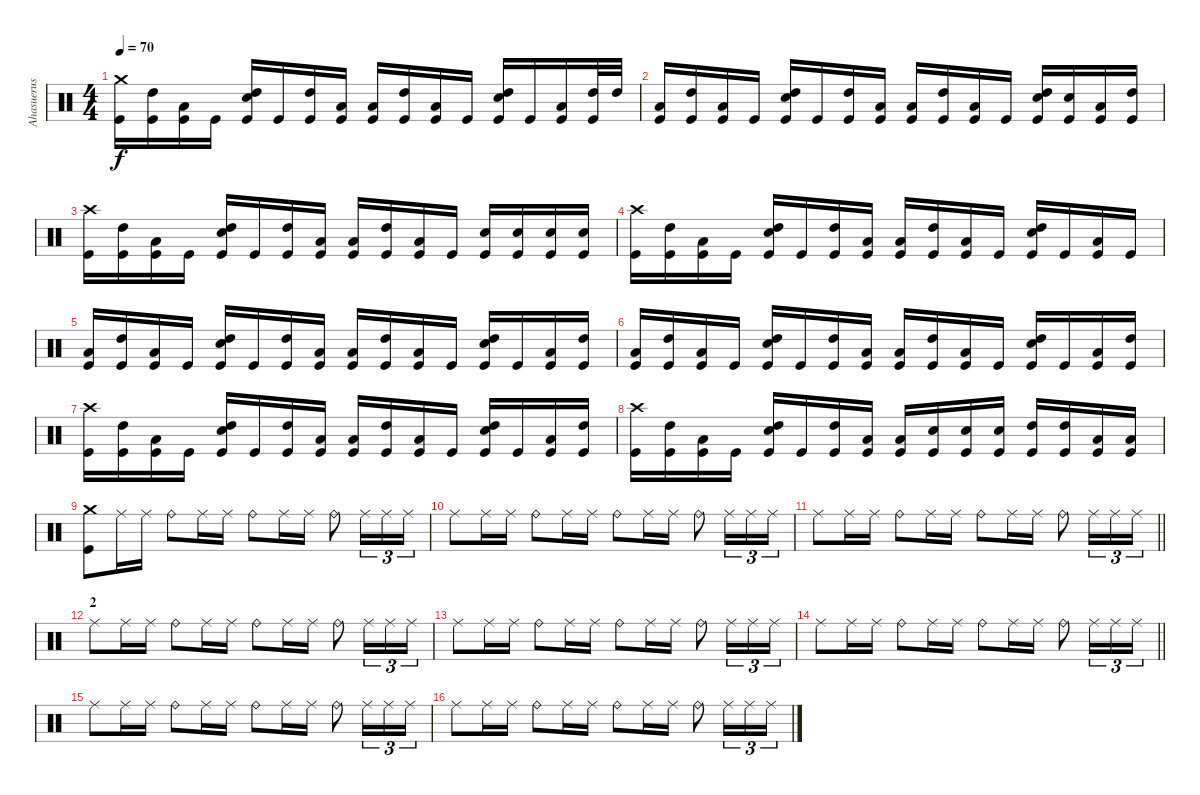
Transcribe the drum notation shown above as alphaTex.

\track ("Ahasuerus" "Ahasuerus") {instrument percussion}
\staff {score}
\articulation defaults
\ts (4 4)
\tempo 70
\clef neutral
\ks c
("Crash medium (hit)" "Kick (hit)").16{dy f} ("High Tom (hit)" "Kick (hit)").16 ("Low Tom (hit)" "Kick (hit)").16 "Kick (hit)".16 ("High Tom (hit)" "Electric Snare (hit)" "Kick (hit)").16 "Kick (hit)".16 ("High Tom (hit)" "Kick (hit)").16 ("Low Tom (hit)" "Kick (hit)").16 ("Low Tom (hit)" "Kick (hit)").16 ("High Tom (hit)" "Kick (hit)").16 ("Low Tom (hit)" "Kick (hit)").16 "Kick (hit)".16 ("High Tom (hit)" "Electric Snare (hit)" "Kick (hit)").16 "Kick (hit)".16 ("Low Tom (hit)" "Kick (hit)").16 ("High Tom (hit)" "Kick (hit)").32 "High Tom (hit)".32 |
("Low Tom (hit)" "Kick (hit)").16 ("High Tom (hit)" "Kick (hit)").16 ("Low Tom (hit)" "Kick (hit)").16 "Kick (hit)".16 ("High Tom (hit)" "Electric Snare (hit)" "Kick (hit)").16 "Kick (hit)".16 ("High Tom (hit)" "Kick (hit)").16 ("Low Tom (hit)" "Kick (hit)").16 ("Low Tom (hit)" "Kick (hit)").16 ("High Tom (hit)" "Kick (hit)").16 ("Low Tom (hit)" "Kick (hit)").16 "Kick (hit)".16 ("High Tom (hit)" "Electric Snare (hit)" "Kick (hit)").16 ("Electric Snare (hit)" "Kick (hit)").16 ("Low Tom (hit)" "Kick (hit)").16 ("High Tom (hit)" "Kick (hit)").16 |
("Crash high (hit)" "Kick (hit)").16 ("High Tom (hit)" "Kick (hit)").16 ("Low Tom (hit)" "Kick (hit)").16 "Kick (hit)".16 ("High Tom (hit)" "Electric Snare (hit)" "Kick (hit)").16 "Kick (hit)".16 ("High Tom (hit)" "Kick (hit)").16 ("Low Tom (hit)" "Kick (hit)").16 ("Low Tom (hit)" "Kick (hit)").16 ("High Tom (hit)" "Kick (hit)").16 ("Low Tom (hit)" "Kick (hit)").16 "Kick (hit)".16 ("Electric Snare (hit)" "Kick (hit)").16 ("Electric Snare (hit)" "Kick (hit)").16 ("Electric Snare (hit)" "Kick (hit)").16 ("Electric Snare (hit)" "Kick (hit)").16 |
("Crash high (hit)" "Kick (hit)").16 ("High Tom (hit)" "Kick (hit)").16 ("Low Tom (hit)" "Kick (hit)").16 "Kick (hit)".16 ("High Tom (hit)" "Electric Snare (hit)" "Kick (hit)").16 "Kick (hit)".16 ("High Tom (hit)" "Kick (hit)").16 ("Low Tom (hit)" "Kick (hit)").16 ("Low Tom (hit)" "Kick (hit)").16 ("High Tom (hit)" "Kick (hit)").16 ("Low Tom (hit)" "Kick (hit)").16 "Kick (hit)".16 ("High Tom (hit)" "Electric Snare (hit)" "Kick (hit)").16 "Kick (hit)".16 ("Low Tom (hit)" "Kick (hit)").16 "Kick (hit)".16 |
("Low Tom (hit)" "Kick (hit)").16 ("High Tom (hit)" "Kick (hit)").16 ("Low Tom (hit)" "Kick (hit)").16 "Kick (hit)".16 ("High Tom (hit)" "Electric Snare (hit)" "Kick (hit)").16 "Kick (hit)".16 ("High Tom (hit)" "Kick (hit)").16 ("Low Tom (hit)" "Kick (hit)").16 ("Low Tom (hit)" "Kick (hit)").16 ("High Tom (hit)" "Kick (hit)").16 ("Low Tom (hit)" "Kick (hit)").16 "Kick (hit)".16 ("High Tom (hit)" "Electric Snare (hit)" "Kick (hit)").16 "Kick (hit)".16 ("Low Tom (hit)" "Kick (hit)").16 ("High Tom (hit)" "Kick (hit)").16 |
("Low Tom (hit)" "Kick (hit)").16 ("High Tom (hit)" "Kick (hit)").16 ("Low Tom (hit)" "Kick (hit)").16 "Kick (hit)".16 ("High Tom (hit)" "Electric Snare (hit)" "Kick (hit)").16 "Kick (hit)".16 ("High Tom (hit)" "Kick (hit)").16 ("Low Tom (hit)" "Kick (hit)").16 ("Low Tom (hit)" "Kick (hit)").16 ("High Tom (hit)" "Kick (hit)").16 ("Low Tom (hit)" "Kick (hit)").16 "Kick (hit)".16 ("High Tom (hit)" "Electric Snare (hit)" "Kick (hit)").16 "Kick (hit)".16 ("Low Tom (hit)" "Kick (hit)").16 ("High Tom (hit)" "Kick (hit)").16 |
("Crash high (hit)" "Kick (hit)").16 ("High Tom (hit)" "Kick (hit)").16 ("Low Tom (hit)" "Kick (hit)").16 "Kick (hit)".16 ("High Tom (hit)" "Electric Snare (hit)" "Kick (hit)").16 "Kick (hit)".16 ("High Tom (hit)" "Kick (hit)").16 ("Low Tom (hit)" "Kick (hit)").16 ("Low Tom (hit)" "Kick (hit)").16 ("High Tom (hit)" "Kick (hit)").16 ("Low Tom (hit)" "Kick (hit)").16 "Kick (hit)".16 ("High Tom (hit)" "Electric Snare (hit)" "Kick (hit)").16 "Kick (hit)".16 ("Low Tom (hit)" "Kick (hit)").16 ("High Tom (hit)" "Kick (hit)").16 |
("Crash high (hit)" "Kick (hit)").16 ("High Tom (hit)" "Kick (hit)").16 ("Low Tom (hit)" "Kick (hit)").16 "Kick (hit)".16 ("High Tom (hit)" "Electric Snare (hit)" "Kick (hit)").16 "Kick (hit)".16 ("High Tom (hit)" "Kick (hit)").16 ("Low Tom (hit)" "Kick (hit)").16 ("Low Tom (hit)" "Kick (hit)").16 ("Electric Snare (hit)" "Kick (hit)").16 ("Electric Snare (hit)" "Kick (hit)").16 ("Electric Snare (hit)" "Kick (hit)").16 ("High Tom (hit)" "Kick (hit)").16 ("High Tom (hit)" "Kick (hit)").16 ("Low Tom (hit)" "Kick (hit)").16 ("Low Tom (hit)" "Kick (hit)").16 |
("Crash medium (hit)" "Kick (hit)").8 "Ride (middle)".16 "Ride (middle)".16 "Ride (bell)".8 "Ride (middle)".16 "Ride (middle)".16 "Ride (bell)".8 "Ride (middle)".16 "Ride (middle)".16 "Ride (bell)".8 "Ride (middle)".16{tu (3 2)} "Ride (middle)".16{tu (3 2)} "Ride (middle)".16{tu (3 2)} |
"Ride (middle)".8 "Ride (middle)".16 "Ride (middle)".16 "Ride (bell)".8 "Ride (middle)".16 "Ride (middle)".16 "Ride (bell)".8 "Ride (middle)".16 "Ride (middle)".16 "Ride (bell)".8 "Ride (middle)".16{tu (3 2)} "Ride (middle)".16{tu (3 2)} "Ride (middle)".16{tu (3 2)} |
\barLineRight lightlight "Ride (middle)".8 "Ride (middle)".16 "Ride (middle)".16 "Ride (bell)".8 "Ride (middle)".16 "Ride (middle)".16 "Ride (bell)".8 "Ride (middle)".16 "Ride (middle)".16 "Ride (bell)".8 "Ride (middle)".16{tu (3 2)} "Ride (middle)".16{tu (3 2)} "Ride (middle)".16{tu (3 2)}
|
\section ("" "2")
"Ride (middle)".8 "Ride (middle)".16 "Ride (middle)".16 "Ride (bell)".8 "Ride (middle)".16 "Ride (middle)".16 "Ride (bell)".8 "Ride (middle)".16 "Ride (middle)".16 "Ride (bell)".8 "Ride (middle)".16{tu (3 2)} "Ride (middle)".16{tu (3 2)} "Ride (middle)".16{tu (3 2)} |
"Ride (middle)".8 "Ride (middle)".16 "Ride (middle)".16 "Ride (bell)".8 "Ride (middle)".16 "Ride (middle)".16 "Ride (bell)".8 "Ride (middle)".16 "Ride (middle)".16 "Ride (bell)".8 "Ride (middle)".16{tu (3 2)} "Ride (middle)".16{tu (3 2)} "Ride (middle)".16{tu (3 2)} |
\barLineRight lightlight "Ride (middle)".8 "Ride (middle)".16 "Ride (middle)".16 "Ride (bell)".8 "Ride (middle)".16 "Ride (middle)".16 "Ride (bell)".8 "Ride (middle)".16 "Ride (middle)".16 "Ride (bell)".8 "Ride (middle)".16{tu (3 2)} "Ride (middle)".16{tu (3 2)} "Ride (middle)".16{tu (3 2)}
|
"Ride (middle)".8 "Ride (middle)".16 "Ride (middle)".16 "Ride (bell)".8 "Ride (middle)".16 "Ride (middle)".16 "Ride (bell)".8 "Ride (middle)".16 "Ride (middle)".16 "Ride (bell)".8 "Ride (middle)".16{tu (3 2)} "Ride (middle)".16{tu (3 2)} "Ride (middle)".16{tu (3 2)} |
"Ride (middle)".8 "Ride (middle)".16 "Ride (middle)".16 "Ride (bell)".8 "Ride (middle)".16 "Ride (middle)".16 "Ride (bell)".8 "Ride (middle)".16 "Ride (middle)".16 "Ride (bell)".8 "Ride (middle)".16{tu (3 2)} "Ride (middle)".16{tu (3 2)} "Ride (middle)".16{tu (3 2)}
